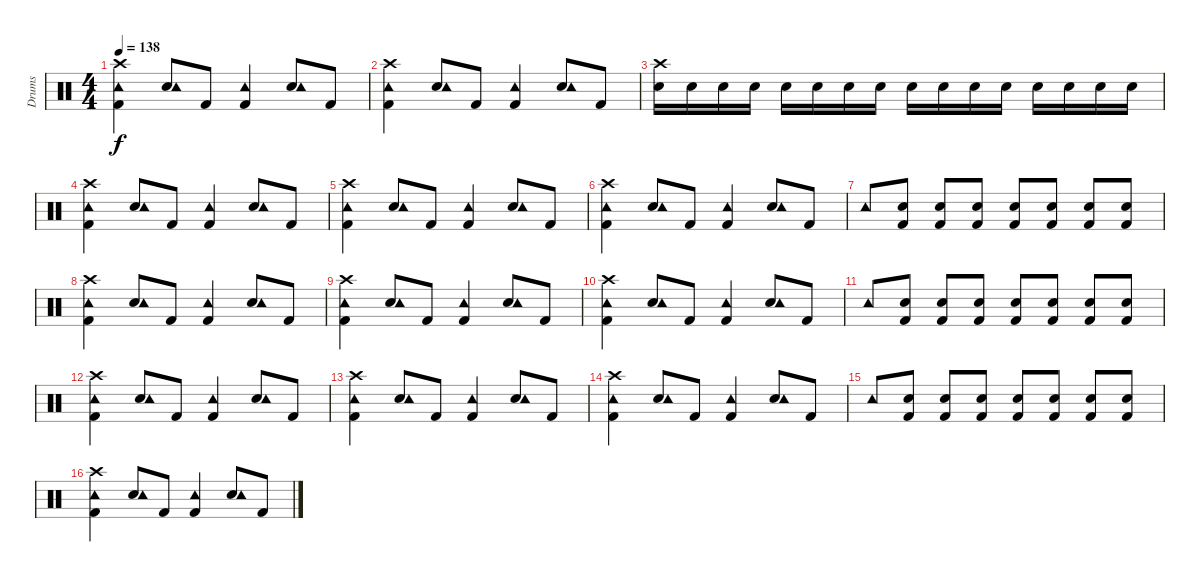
\track ("Drums" "Drums") {instrument percussion}
\staff {score}
\articulation defaults
\ts (4 4)
\tempo 138
\clef neutral
\ks c
("Kick (hit) 2" "Tambourine (hit)" "Crash high (hit)").4{dy f} ("Snare (hit) 2" "Tambourine (hit)").8 "Kick (hit) 2".8 ("Kick (hit) 2" "Tambourine (hit)").4 ("Snare (hit) 2" "Tambourine (hit)").8 "Kick (hit) 2".8 |
("Kick (hit) 2" "Tambourine (hit)" "Crash high (hit)").4 ("Snare (hit) 2" "Tambourine (hit)").8 "Kick (hit) 2".8 ("Kick (hit) 2" "Tambourine (hit)").4 ("Snare (hit) 2" "Tambourine (hit)").8 "Kick (hit) 2".8 |
("Snare (hit) 2" "Crash high (hit)").16 "Snare (hit) 2".16 "Snare (hit) 2".16 "Snare (hit) 2".16 "Snare (hit) 2".16 "Snare (hit) 2".16 "Snare (hit) 2".16 "Snare (hit) 2".16 "Snare (hit) 2".16 "Snare (hit) 2".16 "Snare (hit) 2".16 "Snare (hit) 2".16 "Snare (hit) 2".16 "Snare (hit) 2".16 "Snare (hit) 2".16 "Snare (hit) 2".16 |
("Kick (hit) 2" "Tambourine (hit)" "Crash high (hit)").4 ("Snare (hit) 2" "Tambourine (hit)").8 "Kick (hit) 2".8 ("Kick (hit) 2" "Tambourine (hit)").4 ("Snare (hit) 2" "Tambourine (hit)").8 "Kick (hit) 2".8 |
("Kick (hit) 2" "Tambourine (hit)" "Crash high (hit)").4 ("Snare (hit) 2" "Tambourine (hit)").8 "Kick (hit) 2".8 ("Kick (hit) 2" "Tambourine (hit)").4 ("Snare (hit) 2" "Tambourine (hit)").8 "Kick (hit) 2".8 |
("Kick (hit) 2" "Tambourine (hit)" "Crash high (hit)").4 ("Snare (hit) 2" "Tambourine (hit)").8 "Kick (hit) 2".8 ("Kick (hit) 2" "Tambourine (hit)").4 ("Snare (hit) 2" "Tambourine (hit)").8 "Kick (hit) 2".8 |
"Tambourine (hit)".8 ("Snare (hit) 2" "Kick (hit) 2").8 ("Snare (hit) 2" "Kick (hit) 2").8 ("Snare (hit) 2" "Kick (hit) 2").8 ("Snare (hit) 2" "Kick (hit) 2").8 ("Snare (hit) 2" "Kick (hit) 2").8 ("Snare (hit) 2" "Kick (hit) 2").8 ("Snare (hit) 2" "Kick (hit) 2").8 |
("Kick (hit) 2" "Tambourine (hit)" "Crash high (hit)").4 ("Snare (hit) 2" "Tambourine (hit)").8 "Kick (hit) 2".8 ("Kick (hit) 2" "Tambourine (hit)").4 ("Snare (hit) 2" "Tambourine (hit)").8 "Kick (hit) 2".8 |
("Kick (hit) 2" "Tambourine (hit)" "Crash high (hit)").4 ("Snare (hit) 2" "Tambourine (hit)").8 "Kick (hit) 2".8 ("Kick (hit) 2" "Tambourine (hit)").4 ("Snare (hit) 2" "Tambourine (hit)").8 "Kick (hit) 2".8 |
("Kick (hit) 2" "Tambourine (hit)" "Crash high (hit)").4 ("Snare (hit) 2" "Tambourine (hit)").8 "Kick (hit) 2".8 ("Kick (hit) 2" "Tambourine (hit)").4 ("Snare (hit) 2" "Tambourine (hit)").8 "Kick (hit) 2".8 |
"Tambourine (hit)".8 ("Snare (hit) 2" "Kick (hit) 2").8 ("Snare (hit) 2" "Kick (hit) 2").8 ("Snare (hit) 2" "Kick (hit) 2").8 ("Snare (hit) 2" "Kick (hit) 2").8 ("Snare (hit) 2" "Kick (hit) 2").8 ("Snare (hit) 2" "Kick (hit) 2").8 ("Snare (hit) 2" "Kick (hit) 2").8 |
("Kick (hit) 2" "Tambourine (hit)" "Crash high (hit)").4 ("Snare (hit) 2" "Tambourine (hit)").8 "Kick (hit) 2".8 ("Kick (hit) 2" "Tambourine (hit)").4 ("Snare (hit) 2" "Tambourine (hit)").8 "Kick (hit) 2".8 |
("Kick (hit) 2" "Tambourine (hit)" "Crash high (hit)").4 ("Snare (hit) 2" "Tambourine (hit)").8 "Kick (hit) 2".8 ("Kick (hit) 2" "Tambourine (hit)").4 ("Snare (hit) 2" "Tambourine (hit)").8 "Kick (hit) 2".8 |
("Kick (hit) 2" "Tambourine (hit)" "Crash high (hit)").4 ("Snare (hit) 2" "Tambourine (hit)").8 "Kick (hit) 2".8 ("Kick (hit) 2" "Tambourine (hit)").4 ("Snare (hit) 2" "Tambourine (hit)").8 "Kick (hit) 2".8 |
"Tambourine (hit)".8 ("Snare (hit) 2" "Kick (hit) 2").8 ("Snare (hit) 2" "Kick (hit) 2").8 ("Snare (hit) 2" "Kick (hit) 2").8 ("Snare (hit) 2" "Kick (hit) 2").8 ("Snare (hit) 2" "Kick (hit) 2").8 ("Snare (hit) 2" "Kick (hit) 2").8 ("Snare (hit) 2" "Kick (hit) 2").8 |
("Kick (hit) 2" "Tambourine (hit)" "Crash high (hit)").4 ("Snare (hit) 2" "Tambourine (hit)").8 "Kick (hit) 2".8 ("Kick (hit) 2" "Tambourine (hit)").4 ("Snare (hit) 2" "Tambourine (hit)").8 "Kick (hit) 2".8
